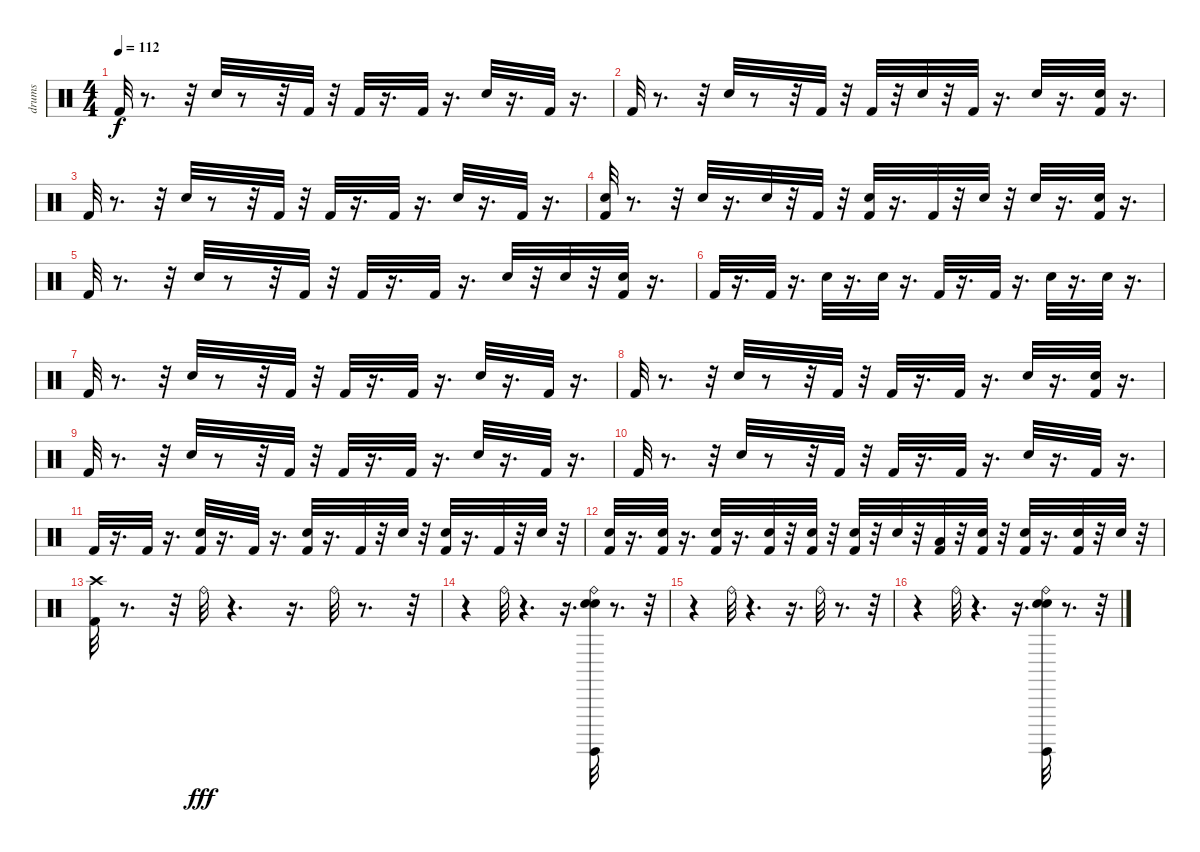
\track ("drums" "drums") {instrument percussion}
\staff {score}
\articulation defaults
\ts (4 4)
\tempo 112
\clef neutral
\ks c "Kick (hit) 2".32{dy f}
r.8{d} r.32 "Snare (hit) 2".32 r.8 r.32 "Kick (hit) 2".32 r.32 "Kick (hit) 2".32 r.16{d} "Kick (hit) 2".32 r.16{d} "Snare (hit) 2".32 r.16{d} "Kick (hit) 2".32 r.16{d} |
"Kick (hit) 2".32 r.8{d} r.32 "Snare (hit) 2".32 r.8 r.32 "Kick (hit) 2".32 r.32 "Kick (hit) 2".32 r.32 "Snare (hit) 2".32 r.32 "Kick (hit) 2".32 r.16{d} "Snare (hit) 2".32 r.16{d} ("Snare (hit) 2" "Kick (hit) 2").32 r.16{d} |
"Kick (hit) 2".32 r.8{d} r.32 "Snare (hit) 2".32 r.8 r.32 "Kick (hit) 2".32 r.32 "Kick (hit) 2".32 r.16{d} "Kick (hit) 2".32 r.16{d} "Snare (hit) 2".32 r.16{d} "Kick (hit) 2".32 r.16{d} |
("Snare (hit) 2" "Kick (hit) 2").32 r.8{d} r.32 "Snare (hit) 2".32 r.16{d} "Snare (hit) 2".32 r.32 "Kick (hit) 2".32 r.32 ("Snare (hit) 2" "Kick (hit) 2").32 r.16{d} "Kick (hit) 2".32 r.32 "Snare (hit) 2".32 r.32 "Snare (hit) 2".32 r.16{d} ("Snare (hit) 2" "Kick (hit) 2").32 r.16{d} |
"Kick (hit) 2".32 r.8{d} r.32 "Snare (hit) 2".32 r.8 r.32 "Kick (hit) 2".32 r.32 "Kick (hit) 2".32 r.16{d} "Kick (hit) 2".32 r.16{d} "Snare (hit) 2".32 r.32 "Snare (hit) 2".32 r.32 ("Snare (hit) 2" "Kick (hit) 2").32 r.16{d} |
"Kick (hit) 2".32 r.16{d} "Kick (hit) 2".32 r.16{d} "Snare (hit) 2".32 r.16{d} "Snare (hit) 2".32 r.16{d} "Kick (hit) 2".32 r.16{d} "Kick (hit) 2".32 r.16{d} "Snare (hit) 2".32 r.16{d} "Snare (hit) 2".32 r.16{d} |
"Kick (hit) 2".32 r.8{d} r.32 "Snare (hit) 2".32 r.8 r.32 "Kick (hit) 2".32 r.32 "Kick (hit) 2".32 r.16{d} "Kick (hit) 2".32 r.16{d} "Snare (hit) 2".32 r.16{d} "Kick (hit) 2".32 r.16{d} |
"Kick (hit) 2".32 r.8{d} r.32 "Snare (hit) 2".32 r.8 r.32 "Kick (hit) 2".32 r.32 "Kick (hit) 2".32 r.16{d} "Kick (hit) 2".32 r.16{d} "Snare (hit) 2".32 r.16{d} ("Snare (hit) 2" "Kick (hit) 2").32 r.16{d} |
"Kick (hit) 2".32 r.8{d} r.32 "Snare (hit) 2".32 r.8 r.32 "Kick (hit) 2".32 r.32 "Kick (hit) 2".32 r.16{d} "Kick (hit) 2".32 r.16{d} "Snare (hit) 2".32 r.16{d} "Kick (hit) 2".32 r.16{d} |
"Kick (hit) 2".32 r.8{d} r.32 "Snare (hit) 2".32 r.8 r.32 "Kick (hit) 2".32 r.32 "Kick (hit) 2".32 r.16{d} "Kick (hit) 2".32 r.16{d} "Snare (hit) 2".32 r.16{d} "Kick (hit) 2".32 r.16{d} |
"Kick (hit) 2".32 r.16{d} "Kick (hit) 2".32 r.16{d} ("Kick (hit) 2" "Snare (hit) 2").32 r.16{d} "Kick (hit) 2".32 r.16{d} ("Snare (hit) 2" "Kick (hit) 2").32 r.16{d} "Kick (hit) 2".32 r.32 "Snare (hit) 2".32 r.32 ("Kick (hit) 2" "Snare (hit) 2").32 r.16{d} "Kick (hit) 2".32 r.32 "Snare (hit) 2".32 r.32 |
("Snare (hit) 2" "Kick (hit) 2").32 r.16{d} ("Snare (hit) 2" "Kick (hit) 2").32 r.16{d} ("Kick (hit) 2" "Snare (hit) 2").32 r.16{d} ("Snare (hit) 2" "Kick (hit) 2").32 r.32 ("Kick (hit) 2" "Snare (hit) 2").32 r.32 ("Snare (hit) 2" "Kick (hit) 2").32 r.32 "Snare (hit) 2".32 r.32 ("Kick (hit) 2" "Low Floor Tom (hit)").32 r.32 ("Kick (hit) 2" "Snare (hit) 2").32 r.32 ("Kick (hit) 2" "Snare (hit) 2").32 r.16{d} ("Snare (hit) 2" "Kick (hit) 2").32 r.32 "Snare (hit) 2".32 r.32 |
("Kick (hit) 2" "Crash high (hit)").32 r.8{d} r.32 "Ride (bell)".32{dy fff} r.4{d} r.16{d} "Ride (bell)".32 r.8{d} r.32 |
r.4 "Ride (bell)".32 r.4{d} r.16{d} ("Surdo (hit)" "Ride (bell)" "Electric Snare (hit)" "Snare (hit) 2").32 r.8{d} r.32 |
r.4 "Ride (bell)".32 r.4{d} r.16{d} "Ride (bell)".32 r.8{d} r.32 |
r.4 "Ride (bell)".32 r.4{d} r.16{d} ("Ride (bell)" "Surdo (hit)" "Electric Snare (hit)" "Snare (hit) 2").32 r.8{d} r.32
